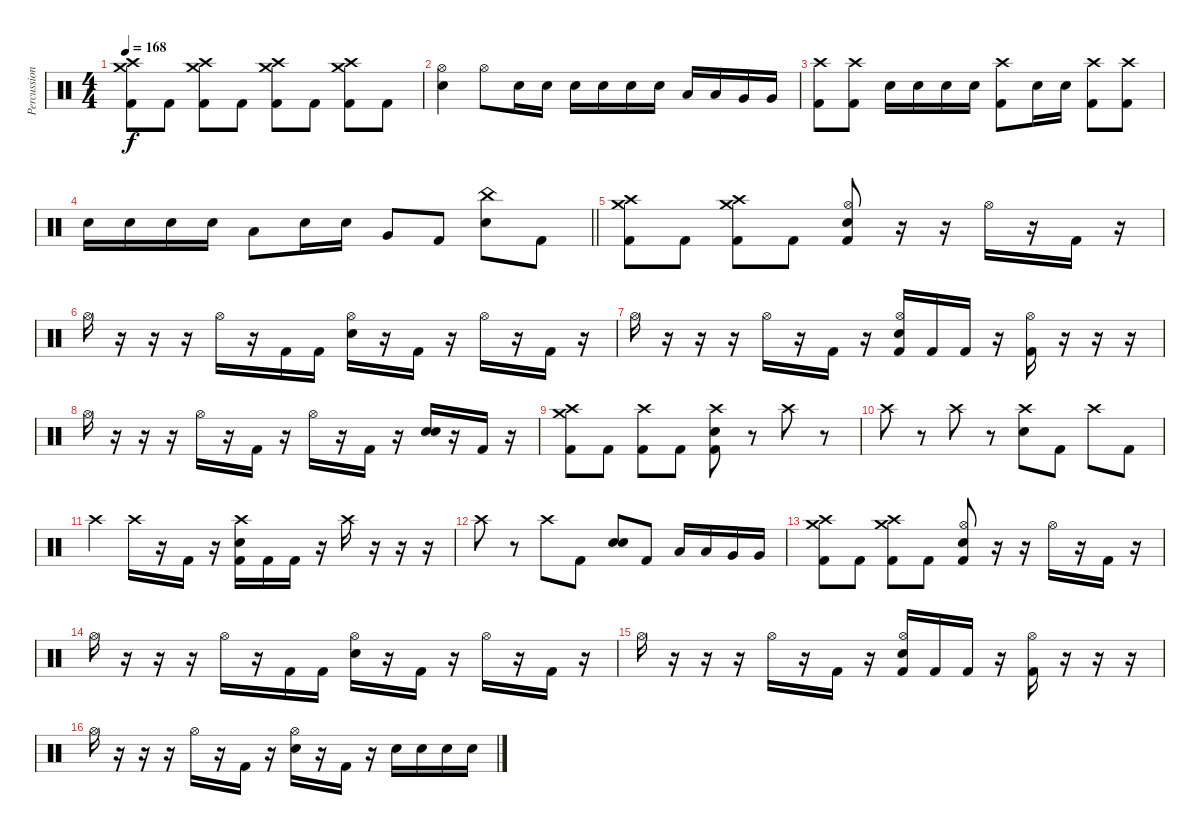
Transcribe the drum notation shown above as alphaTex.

\track ("Percussion" "Percussion") {instrument percussion}
\staff {score}
\articulation defaults
\ts (4 4)
\tempo 168
\clef neutral
\ks c
("Crash high (hit)" "Crash medium (hit)" "Kick (hit) 2").8{dy f} "Kick (hit) 2".8 ("Crash high (hit)" "Crash medium (hit)" "Kick (hit) 2").8 "Kick (hit) 2".8 ("Crash high (hit)" "Crash medium (hit)" "Kick (hit) 2").8 "Kick (hit) 2".8 ("Crash high (hit)" "Crash medium (hit)" "Kick (hit) 2").8 "Kick (hit) 2".8 |
("Hi-Hat (open)" "Electric Snare (hit)").4 "Hi-Hat (open)".8 "Electric Snare (hit)".16 "Electric Snare (hit)".16 "Electric Snare (hit)".16 "Electric Snare (hit)".16 "Electric Snare (hit)".16 "Electric Snare (hit)".16 "Low Tom (hit)".16 "Low Tom (hit)".16 "Very Low Tom (hit)".16 "Very Low Tom (hit)".16 |
("Crash high (hit)" "Kick (hit) 2").8 ("Crash high (hit)" "Kick (hit) 2").8 "Electric Snare (hit)".16 "Electric Snare (hit)".16 "Electric Snare (hit)".16 "Electric Snare (hit)".16 ("Crash high (hit)" "Kick (hit) 2").8 "Electric Snare (hit)".16 "Electric Snare (hit)".16 ("Crash high (hit)" "Kick (hit) 2").8 ("Crash high (hit)" "Kick (hit) 2").8 |
\barLineRight lightlight "Electric Snare (hit)".16 "Electric Snare (hit)".16 "Electric Snare (hit)".16 "Electric Snare (hit)".16 "Low Tom (hit)".8 "Electric Snare (hit)".16 "Electric Snare (hit)".16 "Very Low Tom (hit)".8 "Kick (hit) 2".8
("China (hit)" "Electric Snare (hit)").8 "Kick (hit) 2".8 |
\section ("" "")
("Crash high (hit)" "Crash medium (hit)" "Kick (hit) 2").8 "Kick (hit) 2".8 ("Crash high (hit)" "Crash medium (hit)" "Kick (hit) 2").8 "Kick (hit) 2".8 ("Hi-Hat (open)" "Electric Snare (hit)" "Kick (hit) 2").8 r.16 r.16 "Hi-Hat (open)".16 r.16 "Kick (hit) 2".16 r.16 |
"Hi-Hat (open)".16 r.16 r.16 r.16 "Hi-Hat (open)".16 r.16 "Kick (hit) 2".16 "Kick (hit) 2".16 ("Hi-Hat (open)" "Electric Snare (hit)").16 r.16 "Kick (hit) 2".16 r.16 "Hi-Hat (open)".16 r.16 "Kick (hit) 2".16 r.16 |
"Hi-Hat (open)".16 r.16 r.16 r.16 "Hi-Hat (open)".16 r.16 "Kick (hit) 2".16 r.16 ("Hi-Hat (open)" "Electric Snare (hit)" "Kick (hit) 2").16 "Kick (hit) 2".16 "Kick (hit) 2".16 r.16 ("Hi-Hat (open)" "Kick (hit) 2").16 r.16 r.16 r.16 |
"Hi-Hat (open)".16 r.16 r.16 r.16 "Hi-Hat (open)".16 r.16 "Kick (hit) 2".16 r.16 "Hi-Hat (open)".16 r.16 "Kick (hit) 2".16 r.16 ("Electric Snare (hit)" "Electric Snare (hit)").16 r.16 "Kick (hit) 2".16 r.16 |
("Crash high (hit)" "Crash medium (hit)" "Kick (hit) 2").8 "Kick (hit) 2".8 ("Crash high (hit)" "Kick (hit) 2").8 "Kick (hit) 2".8 ("Crash high (hit)" "Electric Snare (hit)" "Kick (hit) 2").8 r.8 "Crash high (hit)".8 r.8 |
"Crash high (hit)".8 r.8 "Crash high (hit)".8 r.8 ("Crash high (hit)" "Electric Snare (hit)").8 "Kick (hit) 2".8 "Crash high (hit)".8 "Kick (hit) 2".8 |
"Crash high (hit)".4 "Crash high (hit)".16 r.16 "Kick (hit) 2".16 r.16 ("Crash high (hit)" "Electric Snare (hit)" "Kick (hit) 2").16 "Kick (hit) 2".16 "Kick (hit) 2".16 r.16 "Crash high (hit)".16 r.16 r.16 r.16 |
"Crash high (hit)".8 r.8 "Crash high (hit)".8 "Kick (hit) 2".8 ("Electric Snare (hit)" "Electric Snare (hit)").8 "Kick (hit) 2".8 "Low Tom (hit)".16 "Low Tom (hit)".16 "Very Low Tom (hit)".16 "Very Low Tom (hit)".16 |
("Crash high (hit)" "Crash medium (hit)" "Kick (hit) 2").8 "Kick (hit) 2".8 ("Crash high (hit)" "Crash medium (hit)" "Kick (hit) 2").8 "Kick (hit) 2".8 ("Hi-Hat (open)" "Electric Snare (hit)" "Kick (hit) 2").8 r.16 r.16 "Hi-Hat (open)".16 r.16 "Kick (hit) 2".16 r.16 |
"Hi-Hat (open)".16 r.16 r.16 r.16 "Hi-Hat (open)".16 r.16 "Kick (hit) 2".16 "Kick (hit) 2".16 ("Hi-Hat (open)" "Electric Snare (hit)").16 r.16 "Kick (hit) 2".16 r.16 "Hi-Hat (open)".16 r.16 "Kick (hit) 2".16 r.16 |
"Hi-Hat (open)".16 r.16 r.16 r.16 "Hi-Hat (open)".16 r.16 "Kick (hit) 2".16 r.16 ("Hi-Hat (open)" "Electric Snare (hit)" "Kick (hit) 2").16 "Kick (hit) 2".16 "Kick (hit) 2".16 r.16 ("Hi-Hat (open)" "Kick (hit) 2").16 r.16 r.16 r.16 |
"Hi-Hat (open)".16 r.16 r.16 r.16 "Hi-Hat (open)".16 r.16 "Kick (hit) 2".16 r.16 ("Hi-Hat (open)" "Electric Snare (hit)").16 r.16 "Kick (hit) 2".16 r.16 "Electric Snare (hit)".16 "Electric Snare (hit)".16 "Electric Snare (hit)".16 "Electric Snare (hit)".16
